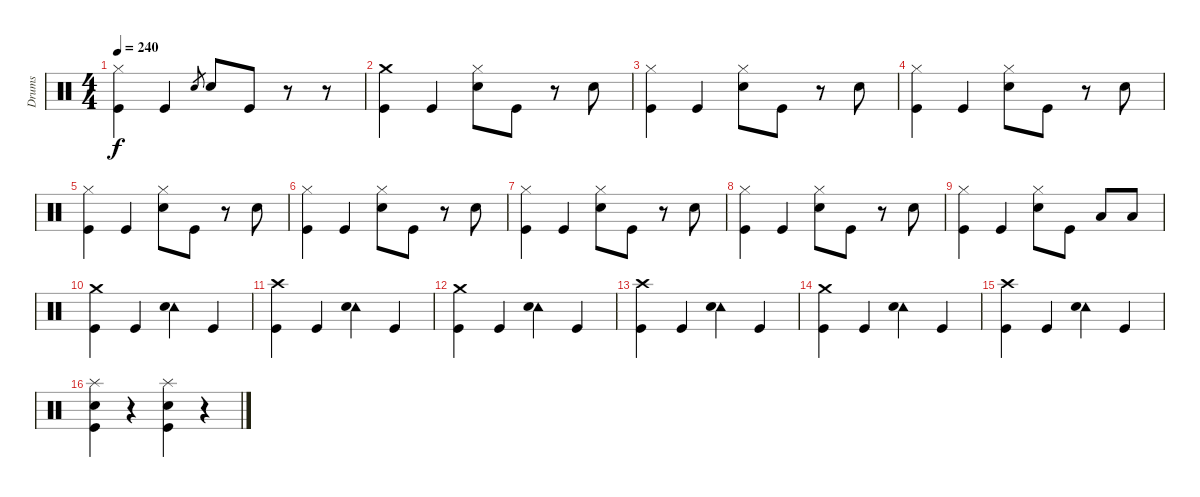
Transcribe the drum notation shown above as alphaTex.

\track ("Drums" "Drums") {instrument percussion}
\staff {score}
\articulation defaults
\ts (4 4)
\tempo 240
\clef neutral
\ks c
("Hi-Hat (closed)" "Kick (hit)").4{dy f} "Kick (hit)".4 "Snare (hit) 2".8{gr} "Snare (hit) 2".8 "Kick (hit)".8 r.8 r.8 |
("Crash medium (hit)" "Kick (hit)").4 "Kick (hit)".4 ("Hi-Hat (closed)" "Snare (hit) 2").8 "Kick (hit)".8 r.8 "Snare (hit) 2".8 |
("Hi-Hat (closed)" "Kick (hit)").4 "Kick (hit)".4 ("Hi-Hat (closed)" "Snare (hit) 2").8 "Kick (hit)".8 r.8 "Snare (hit) 2".8 |
("Hi-Hat (closed)" "Kick (hit)").4 "Kick (hit)".4 ("Hi-Hat (closed)" "Snare (hit) 2").8 "Kick (hit)".8 r.8 "Snare (hit) 2".8 |
("Hi-Hat (closed)" "Kick (hit)").4 "Kick (hit)".4 ("Hi-Hat (closed)" "Snare (hit) 2").8 "Kick (hit)".8 r.8 "Snare (hit) 2".8 |
("Hi-Hat (closed)" "Kick (hit)").4 "Kick (hit)".4 ("Hi-Hat (closed)" "Snare (hit) 2").8 "Kick (hit)".8 r.8 "Snare (hit) 2".8 |
("Hi-Hat (closed)" "Kick (hit)").4 "Kick (hit)".4 ("Hi-Hat (closed)" "Snare (hit) 2").8 "Kick (hit)".8 r.8 "Snare (hit) 2".8 |
("Hi-Hat (closed)" "Kick (hit)").4 "Kick (hit)".4 ("Hi-Hat (closed)" "Snare (hit) 2").8 "Kick (hit)".8 r.8 "Snare (hit) 2".8 |
("Hi-Hat (closed)" "Kick (hit)").4 "Kick (hit)".4 ("Hi-Hat (closed)" "Snare (hit) 2").8 "Kick (hit)".8 "Low Tom (hit)".8 "Low Tom (hit)".8 |
("Crash medium (hit)" "Kick (hit)").4 "Kick (hit)".4 ("Tambourine (hit)" "Snare (hit) 2").4 "Kick (hit)".4 |
("Crash high (hit)" "Kick (hit)").4 "Kick (hit)".4 ("Tambourine (hit)" "Snare (hit) 2").4 "Kick (hit)".4 |
("Crash medium (hit)" "Kick (hit)").4 "Kick (hit)".4 ("Tambourine (hit)" "Snare (hit) 2").4 "Kick (hit)".4 |
("Crash high (hit)" "Kick (hit)").4 "Kick (hit)".4 ("Tambourine (hit)" "Snare (hit) 2").4 "Kick (hit)".4 |
("Crash medium (hit)" "Kick (hit)").4 "Kick (hit)".4 ("Tambourine (hit)" "Snare (hit) 2").4 "Kick (hit)".4 |
("Crash high (hit)" "Kick (hit)").4 "Kick (hit)".4 ("Tambourine (hit)" "Snare (hit) 2").4 "Kick (hit)".4 |
("Splash (hit)" "Snare (hit) 2" "Kick (hit)").4 r.4 ("Splash (hit)" "Snare (hit) 2" "Kick (hit)").4 r.4
